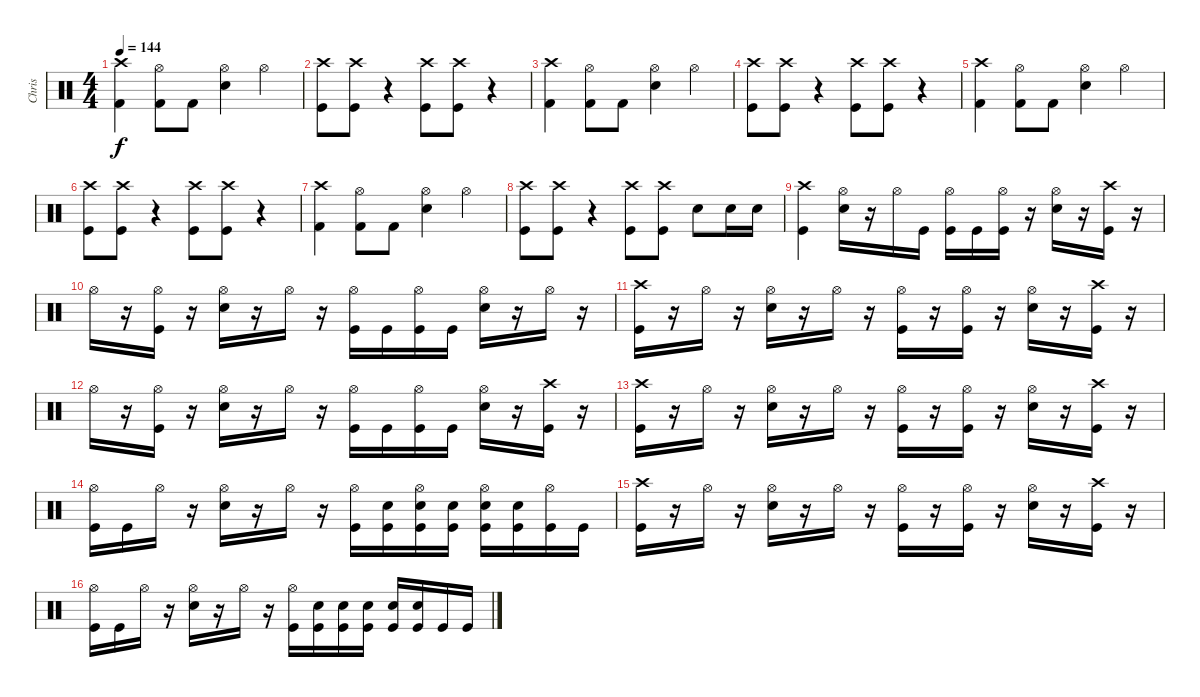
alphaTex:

\track ("Chris" "Chris") {instrument percussion}
\staff {score}
\articulation defaults
\ts (4 4)
\tempo 144
\clef neutral
\ks c
("Crash high (hit)" "Kick (hit) 2").4{dy f} ("Hi-Hat (open)" "Kick (hit) 2").8 "Kick (hit) 2".8 ("Hi-Hat (open)" "Electric Snare (hit)").4 "Hi-Hat (open)".4 |
("Crash high (hit)" "Kick (hit)").8 ("Crash high (hit)" "Kick (hit)").8 r.4 ("Crash high (hit)" "Kick (hit)").8 ("Crash high (hit)" "Kick (hit)").8 r.4 |
("Crash high (hit)" "Kick (hit) 2").4 ("Hi-Hat (open)" "Kick (hit) 2").8 "Kick (hit) 2".8 ("Hi-Hat (open)" "Electric Snare (hit)").4 "Hi-Hat (open)".4 |
("Crash high (hit)" "Kick (hit)").8 ("Crash high (hit)" "Kick (hit)").8 r.4 ("Crash high (hit)" "Kick (hit)").8 ("Crash high (hit)" "Kick (hit)").8 r.4 |
("Crash high (hit)" "Kick (hit) 2").4 ("Hi-Hat (open)" "Kick (hit) 2").8 "Kick (hit) 2".8 ("Hi-Hat (open)" "Electric Snare (hit)").4 "Hi-Hat (open)".4 |
("Crash high (hit)" "Kick (hit)").8 ("Crash high (hit)" "Kick (hit)").8 r.4 ("Crash high (hit)" "Kick (hit)").8 ("Crash high (hit)" "Kick (hit)").8 r.4 |
("Crash high (hit)" "Kick (hit) 2").4 ("Hi-Hat (open)" "Kick (hit) 2").8 "Kick (hit) 2".8 ("Hi-Hat (open)" "Electric Snare (hit)").4 "Hi-Hat (open)".4 |
("Crash high (hit)" "Kick (hit)").8 ("Crash high (hit)" "Kick (hit)").8 r.4 ("Crash high (hit)" "Kick (hit)").8 ("Crash high (hit)" "Kick (hit)").8 "Electric Snare (hit)".8 "Electric Snare (hit)".16 "Electric Snare (hit)".16 |
("Crash high (hit)" "Kick (hit)").4 ("Hi-Hat (open)" "Electric Snare (hit)").16 r.16 "Hi-Hat (open)".16 "Kick (hit)".16 ("Hi-Hat (open)" "Kick (hit)").16 "Kick (hit)".16 ("Hi-Hat (open)" "Kick (hit)").16 r.16 ("Hi-Hat (open)" "Electric Snare (hit)").16 r.16 ("Crash high (hit)" "Kick (hit)").16 r.16 |
"Hi-Hat (open)".16 r.16 ("Hi-Hat (open)" "Kick (hit)").16 r.16 ("Hi-Hat (open)" "Electric Snare (hit)").16 r.16 "Hi-Hat (open)".16 r.16 ("Hi-Hat (open)" "Kick (hit)").16 "Kick (hit)".16 ("Hi-Hat (open)" "Kick (hit)").16 "Kick (hit)".16 ("Hi-Hat (open)" "Electric Snare (hit)").16 r.16 "Hi-Hat (open)".16 r.16 |
("Crash high (hit)" "Kick (hit)").16 r.16 "Hi-Hat (open)".16 r.16 ("Hi-Hat (open)" "Electric Snare (hit)").16 r.16 "Hi-Hat (open)".16 r.16 ("Hi-Hat (open)" "Kick (hit)").16 r.16 ("Hi-Hat (open)" "Kick (hit)").16 r.16 ("Hi-Hat (open)" "Electric Snare (hit)").16 r.16 ("Crash high (hit)" "Kick (hit)").16 r.16 |
"Hi-Hat (open)".16 r.16 ("Hi-Hat (open)" "Kick (hit)").16 r.16 ("Hi-Hat (open)" "Electric Snare (hit)").16 r.16 "Hi-Hat (open)".16 r.16 ("Hi-Hat (open)" "Kick (hit)").16 "Kick (hit)".16 ("Hi-Hat (open)" "Kick (hit)").16 "Kick (hit)".16 ("Hi-Hat (open)" "Electric Snare (hit)").16 r.16 ("Crash high (hit)" "Kick (hit)").16 r.16 |
("Crash high (hit)" "Kick (hit)").16 r.16 "Hi-Hat (open)".16 r.16 ("Hi-Hat (open)" "Electric Snare (hit)").16 r.16 "Hi-Hat (open)".16 r.16 ("Hi-Hat (open)" "Kick (hit)").16 r.16 ("Hi-Hat (open)" "Kick (hit)").16 r.16 ("Hi-Hat (open)" "Electric Snare (hit)").16 r.16 ("Crash high (hit)" "Kick (hit)").16 r.16 |
("Hi-Hat (open)" "Kick (hit)").16 "Kick (hit)".16 "Hi-Hat (open)".16 r.16 ("Hi-Hat (open)" "Electric Snare (hit)").16 r.16 "Hi-Hat (open)".16 r.16 ("Hi-Hat (open)" "Kick (hit)").16 ("Electric Snare (hit)" "Kick (hit)").16 ("Hi-Hat (open)" "Electric Snare (hit)" "Kick (hit)").16 ("Electric Snare (hit)" "Kick (hit)").16 ("Hi-Hat (open)" "Electric Snare (hit)" "Kick (hit)").16 ("Electric Snare (hit)" "Kick (hit)").16 ("Hi-Hat (open)" "Kick (hit)").16 "Kick (hit)".16 |
("Crash high (hit)" "Kick (hit)").16 r.16 "Hi-Hat (open)".16 r.16 ("Hi-Hat (open)" "Electric Snare (hit)").16 r.16 "Hi-Hat (open)".16 r.16 ("Hi-Hat (open)" "Kick (hit)").16 r.16 ("Hi-Hat (open)" "Kick (hit)").16 r.16 ("Hi-Hat (open)" "Electric Snare (hit)").16 r.16 ("Crash high (hit)" "Kick (hit)").16 r.16 |
("Hi-Hat (open)" "Kick (hit)").16 "Kick (hit)".16 "Hi-Hat (open)".16 r.16 ("Hi-Hat (open)" "Electric Snare (hit)").16 r.16 "Hi-Hat (open)".16 r.16 ("Hi-Hat (open)" "Kick (hit)").16 ("Electric Snare (hit)" "Kick (hit)").16 ("Electric Snare (hit)" "Kick (hit)").16 ("Electric Snare (hit)" "Kick (hit)").16 ("Electric Snare (hit)" "Kick (hit)").16 ("Electric Snare (hit)" "Kick (hit)").16 "Kick (hit)".16 "Kick (hit)".16
